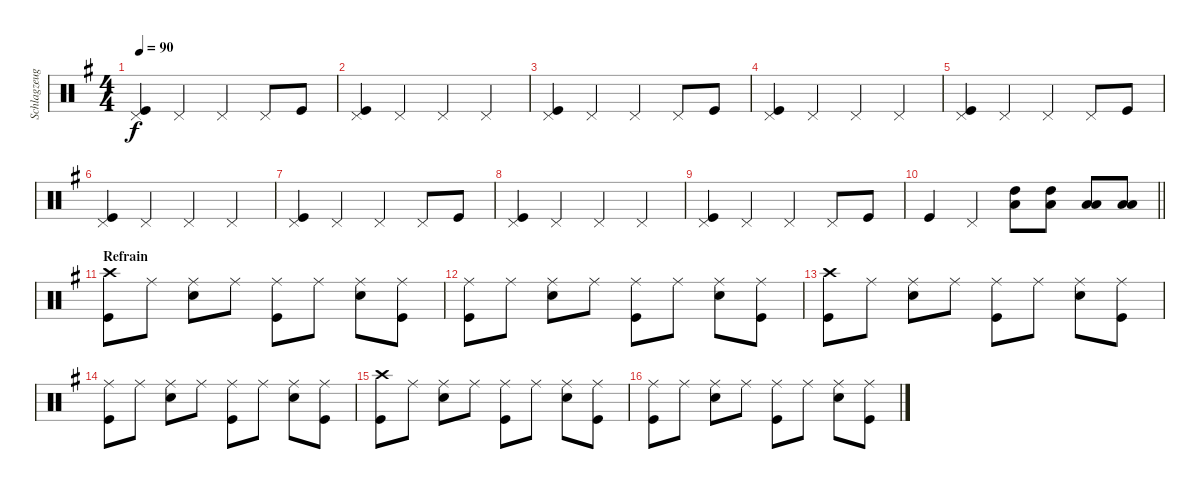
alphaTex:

\track ("Schlagzeug" "Schlagzeug") {instrument percussion}
\staff {score}
\articulation defaults
\ts (4 4)
\tempo 90
\clef neutral
\ks g
("Pedal Hi-Hat (hit)" "Kick (hit)").4{dy f} "Pedal Hi-Hat (hit)".4 "Pedal Hi-Hat (hit)".4 "Pedal Hi-Hat (hit)".8 "Kick (hit)".8 |
("Pedal Hi-Hat (hit)" "Kick (hit)").4 "Pedal Hi-Hat (hit)".4 "Pedal Hi-Hat (hit)".4 "Pedal Hi-Hat (hit)".4 |
("Pedal Hi-Hat (hit)" "Kick (hit)").4 "Pedal Hi-Hat (hit)".4 "Pedal Hi-Hat (hit)".4 "Pedal Hi-Hat (hit)".8 "Kick (hit)".8 |
("Pedal Hi-Hat (hit)" "Kick (hit)").4 "Pedal Hi-Hat (hit)".4 "Pedal Hi-Hat (hit)".4 "Pedal Hi-Hat (hit)".4 |
("Pedal Hi-Hat (hit)" "Kick (hit)").4 "Pedal Hi-Hat (hit)".4 "Pedal Hi-Hat (hit)".4 "Pedal Hi-Hat (hit)".8 "Kick (hit)".8 |
("Pedal Hi-Hat (hit)" "Kick (hit)").4 "Pedal Hi-Hat (hit)".4 "Pedal Hi-Hat (hit)".4 "Pedal Hi-Hat (hit)".4 |
("Pedal Hi-Hat (hit)" "Kick (hit)").4 "Pedal Hi-Hat (hit)".4 "Pedal Hi-Hat (hit)".4 "Pedal Hi-Hat (hit)".8 "Kick (hit)".8 |
("Pedal Hi-Hat (hit)" "Kick (hit)").4 "Pedal Hi-Hat (hit)".4 "Pedal Hi-Hat (hit)".4 "Pedal Hi-Hat (hit)".4 |
("Pedal Hi-Hat (hit)" "Kick (hit)").4 "Pedal Hi-Hat (hit)".4 "Pedal Hi-Hat (hit)".4 "Pedal Hi-Hat (hit)".8 "Kick (hit)".8 |
\barLineRight lightlight "Kick (hit)".4 "Pedal Hi-Hat (hit)".4
("High Tom (hit)" "Low Floor Tom (hit)").8 ("High Tom (hit)" "Low Floor Tom (hit)").8 ("Low Tom (hit)" "Low Floor Tom (hit)").8 ("Low Tom (hit)" "Low Floor Tom (hit)").8 |
\section ("" "Refrain")
("Crash high (hit)" "Kick (hit)").8 "Ride (middle)".8 ("Ride (middle)" "Snare (hit) 2").8 "Ride (middle)".8 ("Ride (middle)" "Kick (hit)").8 "Ride (middle)".8 ("Ride (middle)" "Snare (hit) 2").8 ("Ride (middle)" "Kick (hit)").8 |
("Ride (middle)" "Kick (hit)").8 "Ride (middle)".8 ("Ride (middle)" "Snare (hit) 2").8 "Ride (middle)".8 ("Ride (middle)" "Kick (hit)").8 "Ride (middle)".8 ("Ride (middle)" "Snare (hit) 2").8 ("Ride (middle)" "Kick (hit)").8 |
("Crash high (hit)" "Kick (hit)").8 "Ride (middle)".8 ("Ride (middle)" "Snare (hit) 2").8 "Ride (middle)".8 ("Ride (middle)" "Kick (hit)").8 "Ride (middle)".8 ("Ride (middle)" "Snare (hit) 2").8 ("Ride (middle)" "Kick (hit)").8 |
("Ride (middle)" "Kick (hit)").8 "Ride (middle)".8 ("Ride (middle)" "Snare (hit) 2").8 "Ride (middle)".8 ("Ride (middle)" "Kick (hit)").8 "Ride (middle)".8 ("Ride (middle)" "Snare (hit) 2").8 ("Ride (middle)" "Kick (hit)").8 |
("Crash high (hit)" "Kick (hit)").8 "Ride (middle)".8 ("Ride (middle)" "Snare (hit) 2").8 "Ride (middle)".8 ("Ride (middle)" "Kick (hit)").8 "Ride (middle)".8 ("Ride (middle)" "Snare (hit) 2").8 ("Ride (middle)" "Kick (hit)").8 |
("Ride (middle)" "Kick (hit)").8 "Ride (middle)".8 ("Ride (middle)" "Snare (hit) 2").8 "Ride (middle)".8 ("Ride (middle)" "Kick (hit)").8 "Ride (middle)".8 ("Ride (middle)" "Snare (hit) 2").8 ("Ride (middle)" "Kick (hit)").8
